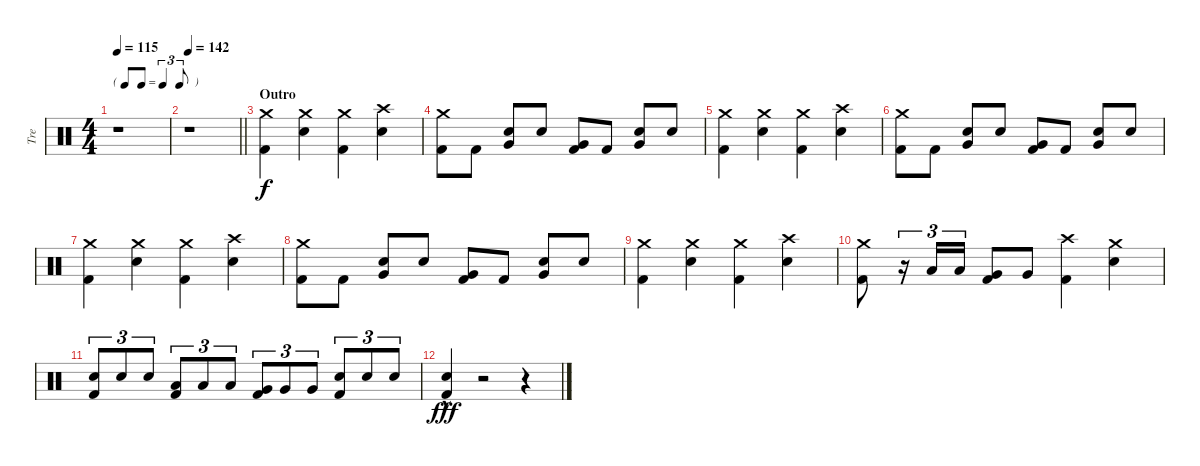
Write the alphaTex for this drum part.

\track ("Tre" "Tre") {instrument percussion}
\staff {score}
\articulation defaults
\ts (4 4)
\tf triplet8th
\tempo 115
\clef neutral
\ks c
r.1{dy f} |
\tempo 142
\barLineRight lightlight
r.1 |
\section ("" "Outro")
("Crash medium (hit)" "Kick (hit) 2").4 ("Crash medium (hit)" "Snare (hit) 2").4 ("Crash medium (hit)" "Kick (hit) 2").4 ("Crash high (hit)" "Snare (hit) 2").4 |
("Crash medium (hit)" "Kick (hit) 2").8 "Kick (hit) 2".8 ("Snare (hit) 2" "Very Low Tom (hit)").8 "Snare (hit) 2".8 ("Very Low Tom (hit)" "Kick (hit) 2").8 "Kick (hit) 2".8 ("Snare (hit) 2" "Very Low Tom (hit)").8 "Snare (hit) 2".8 |
("Crash medium (hit)" "Kick (hit) 2").4 ("Crash medium (hit)" "Snare (hit) 2").4 ("Crash medium (hit)" "Kick (hit) 2").4 ("Crash high (hit)" "Snare (hit) 2").4 |
("Crash medium (hit)" "Kick (hit) 2").8 "Kick (hit) 2".8 ("Snare (hit) 2" "Very Low Tom (hit)").8 "Snare (hit) 2".8 ("Very Low Tom (hit)" "Kick (hit) 2").8 "Kick (hit) 2".8 ("Snare (hit) 2" "Very Low Tom (hit)").8 "Snare (hit) 2".8 |
("Crash medium (hit)" "Kick (hit) 2").4 ("Crash medium (hit)" "Snare (hit) 2").4 ("Crash medium (hit)" "Kick (hit) 2").4 ("Crash high (hit)" "Snare (hit) 2").4 |
("Crash medium (hit)" "Kick (hit) 2").8 "Kick (hit) 2".8 ("Snare (hit) 2" "Very Low Tom (hit)").8 "Snare (hit) 2".8 ("Very Low Tom (hit)" "Kick (hit) 2").8 "Kick (hit) 2".8 ("Snare (hit) 2" "Very Low Tom (hit)").8 "Snare (hit) 2".8 |
("Crash medium (hit)" "Kick (hit) 2").4 ("Crash medium (hit)" "Snare (hit) 2").4 ("Crash medium (hit)" "Kick (hit) 2").4 ("Crash high (hit)" "Snare (hit) 2").4 |
("Crash medium (hit)" "Kick (hit) 2").8 r.16{tu (3 2)} "Low Tom (hit)".16{tu (3 2)} "Low Tom (hit)".16{tu (3 2)} ("Very Low Tom (hit)" "Kick (hit) 2").8 "Very Low Tom (hit)".8 ("Crash high (hit)" "Kick (hit) 2").4 ("Crash medium (hit)" "Snare (hit) 2").4 |
("Snare (hit) 2" "Kick (hit) 2").8{tu (3 2)} "Snare (hit) 2".8{tu (3 2)} "Snare (hit) 2".8{tu (3 2)} ("Low Tom (hit)" "Kick (hit) 2").8{tu (3 2)} "Low Tom (hit)".8{tu (3 2)} "Low Tom (hit)".8{tu (3 2)} ("Very Low Tom (hit)" "Kick (hit) 2").8{tu (3 2)} "Very Low Tom (hit)".8{tu (3 2)} "Very Low Tom (hit)".8{tu (3 2)} ("Snare (hit) 2" "Kick (hit) 2").8{tu (3 2)} "Snare (hit) 2".8{tu (3 2)} "Snare (hit) 2".8{tu (3 2)} |
("Snare (hit) 2"{hac} "Kick (hit) 2"{hac}).4{dy fff} r.2 r.4
